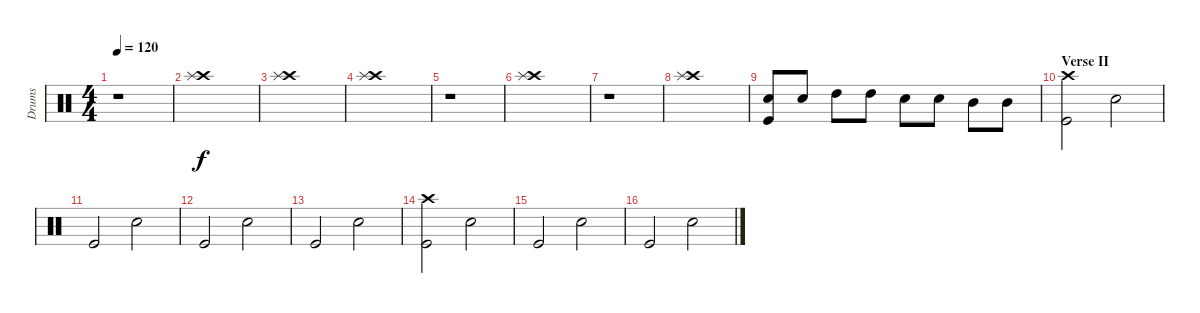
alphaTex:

\track ("Drums" "Drums") {instrument percussion}
\staff {score}
\articulation defaults
\ts (4 4)
\tempo 120
\clef neutral
\ks c
r.1{dy f} |
("Crash high (hit)" "Splash (hit)").1 |
("Crash high (hit)" "Splash (hit)").1 |
("Crash high (hit)" "Splash (hit)").1 |
r.1 |
("Crash high (hit)" "Splash (hit)").1 |
r.1 |
("Crash high (hit)" "Splash (hit)").1 |
("Snare (hit) 2" "Kick (hit)").8 "Snare (hit) 2".8 "High Tom (hit)".8 "High Tom (hit)".8 "Snare (hit) 2".8 "Snare (hit) 2".8 "Mid Tom (hit)".8 "Mid Tom (hit)".8 |
\section ("" "Verse II")
("Crash high (hit)" "Kick (hit)").2 "Snare (hit) 2".2 |
"Kick (hit)".2 "Snare (hit) 2".2 |
"Kick (hit)".2 "Snare (hit) 2".2 |
"Kick (hit)".2 "Snare (hit) 2".2 |
("Crash high (hit)" "Kick (hit)").2 "Snare (hit) 2".2 |
"Kick (hit)".2 "Snare (hit) 2".2 |
"Kick (hit)".2 "Snare (hit) 2".2
